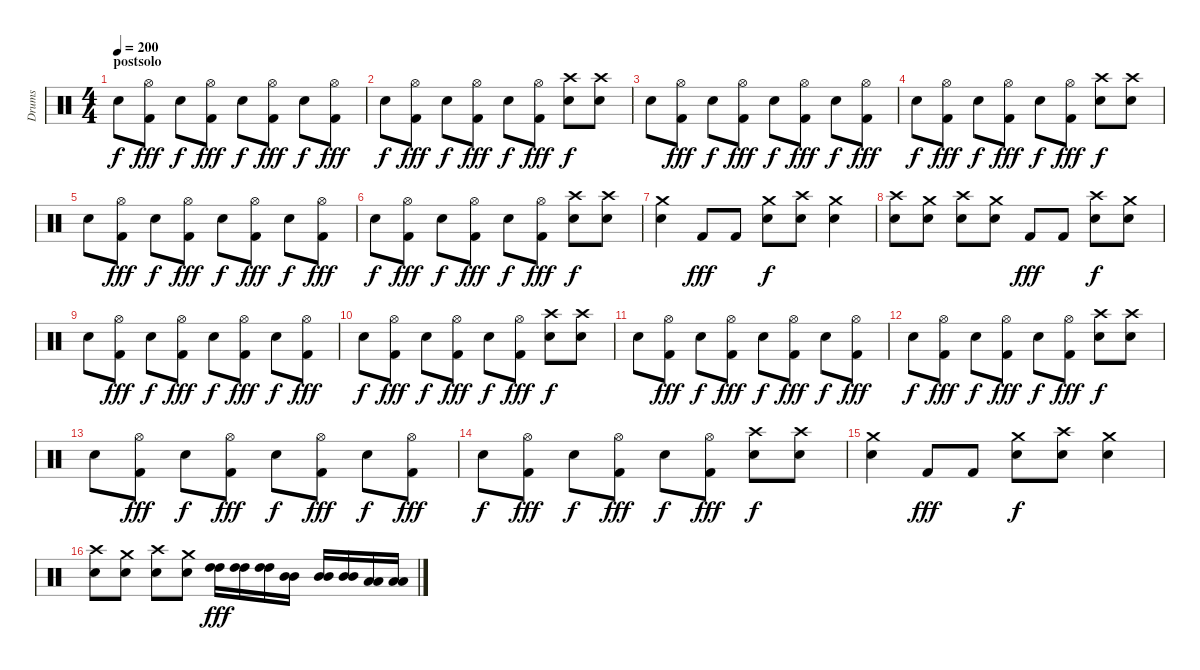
\track ("Drums" "Drums") {instrument percussion}
\staff {score}
\articulation defaults
\ts (4 4)
\section ("" "postsolo")
\tempo 200
\clef neutral
\ks c "Electric Snare (hit)".8{dy f}
("Hi-Hat (open)" "Kick (hit) 2").8{dy fff} "Electric Snare (hit)".8{dy f} ("Hi-Hat (open)" "Kick (hit) 2").8{dy fff} "Electric Snare (hit)".8{dy f} ("Hi-Hat (open)" "Kick (hit) 2").8{dy fff} "Electric Snare (hit)".8{dy f} ("Hi-Hat (open)" "Kick (hit) 2").8{dy fff} |
"Electric Snare (hit)".8{dy f} ("Hi-Hat (open)" "Kick (hit) 2").8{dy fff} "Electric Snare (hit)".8{dy f} ("Hi-Hat (open)" "Kick (hit) 2").8{dy fff} "Electric Snare (hit)".8{dy f} ("Hi-Hat (open)" "Kick (hit) 2").8{dy fff} ("Crash high (hit)" "Electric Snare (hit)").8{dy f} ("Crash high (hit)" "Electric Snare (hit)").8 |
"Electric Snare (hit)".8 ("Hi-Hat (open)" "Kick (hit) 2").8{dy fff} "Electric Snare (hit)".8{dy f} ("Hi-Hat (open)" "Kick (hit) 2").8{dy fff} "Electric Snare (hit)".8{dy f} ("Hi-Hat (open)" "Kick (hit) 2").8{dy fff} "Electric Snare (hit)".8{dy f} ("Hi-Hat (open)" "Kick (hit) 2").8{dy fff} |
"Electric Snare (hit)".8{dy f} ("Hi-Hat (open)" "Kick (hit) 2").8{dy fff} "Electric Snare (hit)".8{dy f} ("Hi-Hat (open)" "Kick (hit) 2").8{dy fff} "Electric Snare (hit)".8{dy f} ("Hi-Hat (open)" "Kick (hit) 2").8{dy fff} ("Crash high (hit)" "Electric Snare (hit)").8{dy f} ("Crash high (hit)" "Electric Snare (hit)").8 |
"Electric Snare (hit)".8 ("Hi-Hat (open)" "Kick (hit) 2").8{dy fff} "Electric Snare (hit)".8{dy f} ("Hi-Hat (open)" "Kick (hit) 2").8{dy fff} "Electric Snare (hit)".8{dy f} ("Hi-Hat (open)" "Kick (hit) 2").8{dy fff} "Electric Snare (hit)".8{dy f} ("Hi-Hat (open)" "Kick (hit) 2").8{dy fff} |
"Electric Snare (hit)".8{dy f} ("Hi-Hat (open)" "Kick (hit) 2").8{dy fff} "Electric Snare (hit)".8{dy f} ("Hi-Hat (open)" "Kick (hit) 2").8{dy fff} "Electric Snare (hit)".8{dy f} ("Hi-Hat (open)" "Kick (hit) 2").8{dy fff} ("Crash high (hit)" "Electric Snare (hit)").8{dy f} ("Crash high (hit)" "Electric Snare (hit)").8 |
("Crash medium (hit)" "Electric Snare (hit)").4 "Kick (hit) 2".8{dy fff} "Kick (hit) 2".8 ("Crash medium (hit)" "Electric Snare (hit)").8{dy f} ("Crash high (hit)" "Electric Snare (hit)").8 ("Crash medium (hit)" "Electric Snare (hit)").4 |
("Crash high (hit)" "Electric Snare (hit)").8 ("Crash medium (hit)" "Electric Snare (hit)").8 ("Crash high (hit)" "Electric Snare (hit)").8 ("Crash medium (hit)" "Electric Snare (hit)").8 "Kick (hit) 2".8{dy fff} "Kick (hit) 2".8 ("Crash high (hit)" "Electric Snare (hit)").8{dy f} ("Crash medium (hit)" "Electric Snare (hit)").8 |
"Electric Snare (hit)".8 ("Hi-Hat (open)" "Kick (hit) 2").8{dy fff} "Electric Snare (hit)".8{dy f} ("Hi-Hat (open)" "Kick (hit) 2").8{dy fff} "Electric Snare (hit)".8{dy f} ("Hi-Hat (open)" "Kick (hit) 2").8{dy fff} "Electric Snare (hit)".8{dy f} ("Hi-Hat (open)" "Kick (hit) 2").8{dy fff} |
"Electric Snare (hit)".8{dy f} ("Hi-Hat (open)" "Kick (hit) 2").8{dy fff} "Electric Snare (hit)".8{dy f} ("Hi-Hat (open)" "Kick (hit) 2").8{dy fff} "Electric Snare (hit)".8{dy f} ("Hi-Hat (open)" "Kick (hit) 2").8{dy fff} ("Crash high (hit)" "Electric Snare (hit)").8{dy f} ("Crash high (hit)" "Electric Snare (hit)").8 |
"Electric Snare (hit)".8 ("Hi-Hat (open)" "Kick (hit) 2").8{dy fff} "Electric Snare (hit)".8{dy f} ("Hi-Hat (open)" "Kick (hit) 2").8{dy fff} "Electric Snare (hit)".8{dy f} ("Hi-Hat (open)" "Kick (hit) 2").8{dy fff} "Electric Snare (hit)".8{dy f} ("Hi-Hat (open)" "Kick (hit) 2").8{dy fff} |
"Electric Snare (hit)".8{dy f} ("Hi-Hat (open)" "Kick (hit) 2").8{dy fff} "Electric Snare (hit)".8{dy f} ("Hi-Hat (open)" "Kick (hit) 2").8{dy fff} "Electric Snare (hit)".8{dy f} ("Hi-Hat (open)" "Kick (hit) 2").8{dy fff} ("Crash high (hit)" "Electric Snare (hit)").8{dy f} ("Crash high (hit)" "Electric Snare (hit)").8 |
"Electric Snare (hit)".8 ("Hi-Hat (open)" "Kick (hit) 2").8{dy fff} "Electric Snare (hit)".8{dy f} ("Hi-Hat (open)" "Kick (hit) 2").8{dy fff} "Electric Snare (hit)".8{dy f} ("Hi-Hat (open)" "Kick (hit) 2").8{dy fff} "Electric Snare (hit)".8{dy f} ("Hi-Hat (open)" "Kick (hit) 2").8{dy fff} |
"Electric Snare (hit)".8{dy f} ("Hi-Hat (open)" "Kick (hit) 2").8{dy fff} "Electric Snare (hit)".8{dy f} ("Hi-Hat (open)" "Kick (hit) 2").8{dy fff} "Electric Snare (hit)".8{dy f} ("Hi-Hat (open)" "Kick (hit) 2").8{dy fff} ("Crash high (hit)" "Electric Snare (hit)").8{dy f} ("Crash high (hit)" "Electric Snare (hit)").8 |
("Crash medium (hit)" "Electric Snare (hit)").4 "Kick (hit) 2".8{dy fff} "Kick (hit) 2".8 ("Crash medium (hit)" "Electric Snare (hit)").8{dy f} ("Crash high (hit)" "Electric Snare (hit)").8 ("Crash medium (hit)" "Electric Snare (hit)").4 |
("Crash high (hit)" "Electric Snare (hit)").8 ("Crash medium (hit)" "Electric Snare (hit)").8 ("Crash high (hit)" "Electric Snare (hit)").8 ("Crash medium (hit)" "Electric Snare (hit)").8 ("High Tom (hit)" "High Tom (hit)").16{dy fff} ("High Tom (hit)" "High Tom (hit)").16 ("High Tom (hit)" "High Tom (hit)").16 ("Mid Tom (hit)" "Mid Tom (hit)").16 ("Mid Tom (hit)" "Mid Tom (hit)").16 ("Mid Tom (hit)" "Mid Tom (hit)").16 ("Low Tom (hit)" "Low Tom (hit)").16 ("Low Tom (hit)" "Low Tom (hit)").16
